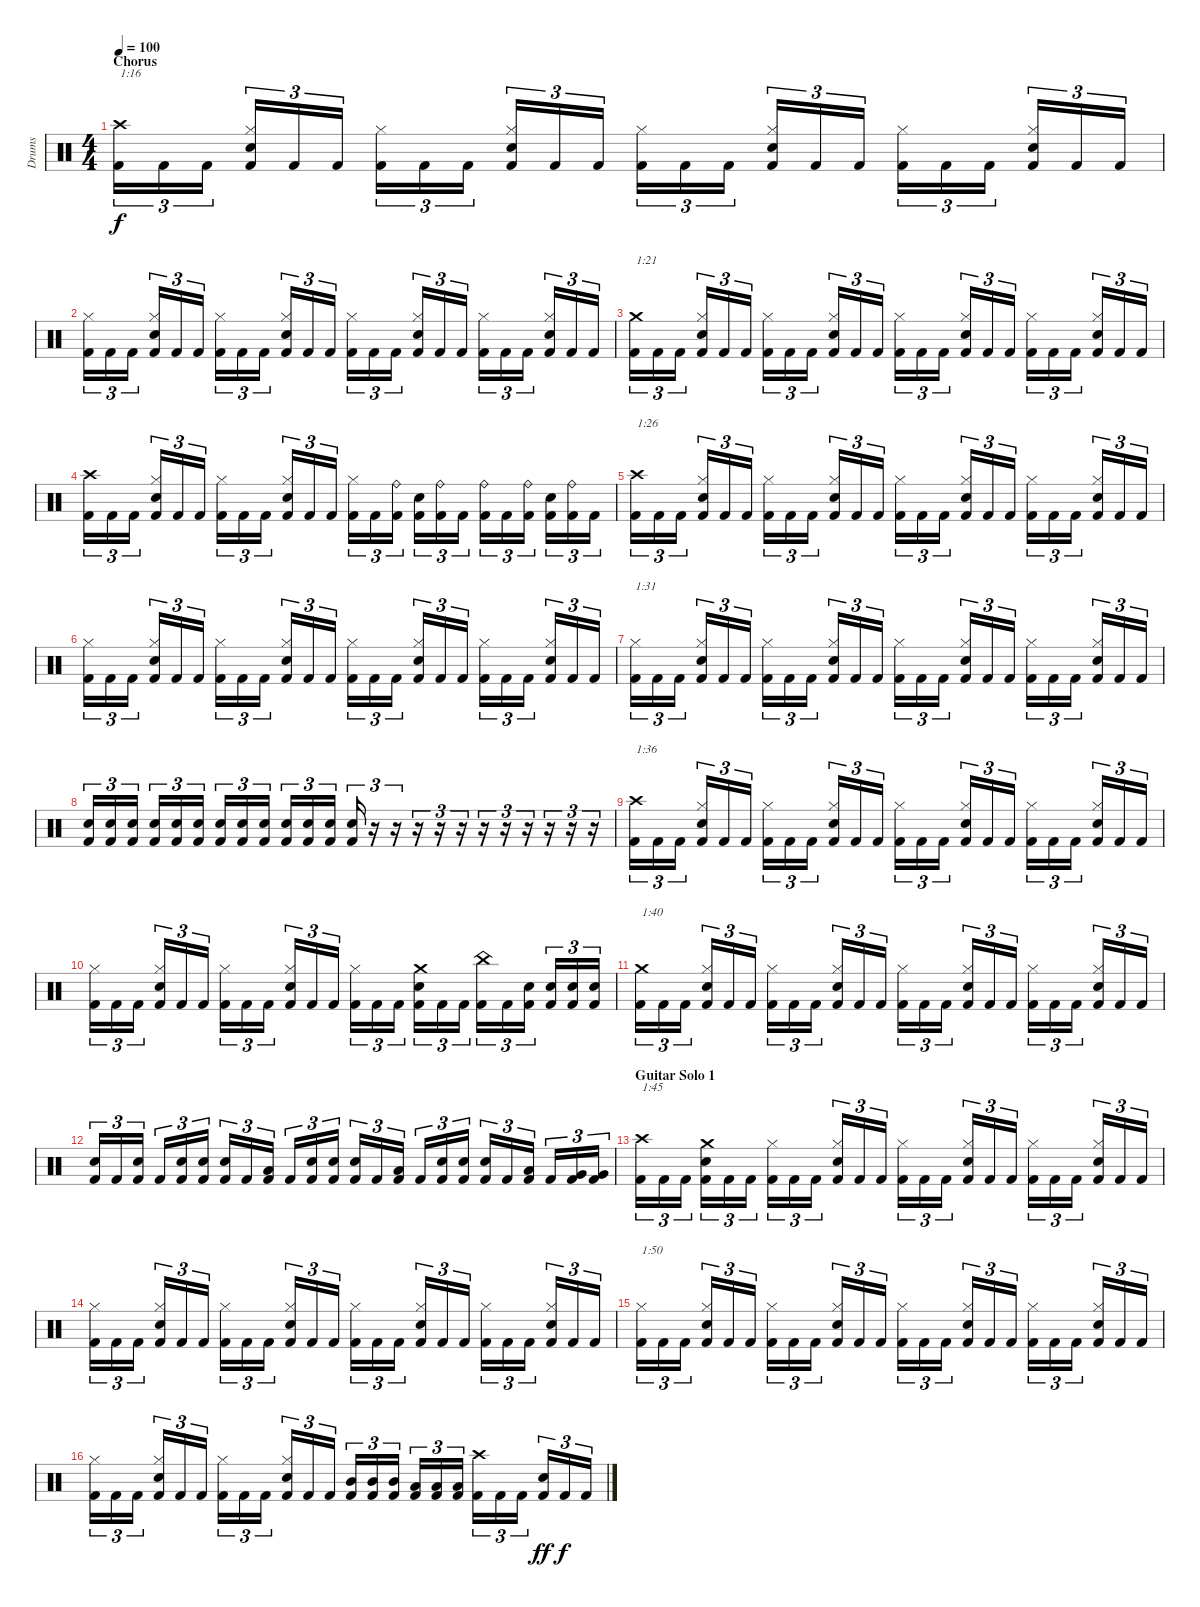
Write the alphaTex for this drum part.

\track ("Drums" "Drums") {instrument percussion}
\staff {score}
\articulation defaults
\ts (4 4)
\section ("" "Chorus")
\tempo 100
\clef neutral
\ks c
("Crash high (hit)" "Kick (hit) 2").16{tu (3 2) txt "1:16" dy f} "Kick (hit) 2".16{tu (3 2)} "Kick (hit) 2".16{tu (3 2)} ("Hi-Hat (closed)" "Snare (hit) 2" "Kick (hit) 2").16{tu (3 2)} "Kick (hit) 2".16{tu (3 2)} "Kick (hit) 2".16{tu (3 2)} ("Hi-Hat (closed)" "Kick (hit) 2").16{tu (3 2)} "Kick (hit) 2".16{tu (3 2)} "Kick (hit) 2".16{tu (3 2)} ("Hi-Hat (closed)" "Snare (hit) 2" "Kick (hit) 2").16{tu (3 2)} "Kick (hit) 2".16{tu (3 2)} "Kick (hit) 2".16{tu (3 2)} ("Hi-Hat (closed)" "Kick (hit) 2").16{tu (3 2)} "Kick (hit) 2".16{tu (3 2)} "Kick (hit) 2".16{tu (3 2)} ("Hi-Hat (closed)" "Snare (hit) 2" "Kick (hit) 2").16{tu (3 2)} "Kick (hit) 2".16{tu (3 2)} "Kick (hit) 2".16{tu (3 2)} ("Hi-Hat (closed)" "Kick (hit) 2").16{tu (3 2)} "Kick (hit) 2".16{tu (3 2)} "Kick (hit) 2".16{tu (3 2)} ("Hi-Hat (closed)" "Snare (hit) 2" "Kick (hit) 2").16{tu (3 2)} "Kick (hit) 2".16{tu (3 2)} "Kick (hit) 2".16{tu (3 2)} |
("Hi-Hat (closed)" "Kick (hit) 2").16{tu (3 2)} "Kick (hit) 2".16{tu (3 2)} "Kick (hit) 2".16{tu (3 2)} ("Hi-Hat (closed)" "Snare (hit) 2" "Kick (hit) 2").16{tu (3 2)} "Kick (hit) 2".16{tu (3 2)} "Kick (hit) 2".16{tu (3 2)} ("Hi-Hat (closed)" "Kick (hit) 2").16{tu (3 2)} "Kick (hit) 2".16{tu (3 2)} "Kick (hit) 2".16{tu (3 2)} ("Hi-Hat (closed)" "Snare (hit) 2" "Kick (hit) 2").16{tu (3 2)} "Kick (hit) 2".16{tu (3 2)} "Kick (hit) 2".16{tu (3 2)} ("Hi-Hat (closed)" "Kick (hit) 2").16{tu (3 2)} "Kick (hit) 2".16{tu (3 2)} "Kick (hit) 2".16{tu (3 2)} ("Hi-Hat (closed)" "Snare (hit) 2" "Kick (hit) 2").16{tu (3 2)} "Kick (hit) 2".16{tu (3 2)} "Kick (hit) 2".16{tu (3 2)} ("Hi-Hat (closed)" "Kick (hit) 2").16{tu (3 2)} "Kick (hit) 2".16{tu (3 2)} "Kick (hit) 2".16{tu (3 2)} ("Hi-Hat (closed)" "Snare (hit) 2" "Kick (hit) 2").16{tu (3 2)} "Kick (hit) 2".16{tu (3 2)} "Kick (hit) 2".16{tu (3 2)} |
("Crash medium (hit)" "Kick (hit) 2").16{tu (3 2) txt "1:21"} "Kick (hit) 2".16{tu (3 2)} "Kick (hit) 2".16{tu (3 2)} ("Hi-Hat (closed)" "Snare (hit) 2" "Kick (hit) 2").16{tu (3 2)} "Kick (hit) 2".16{tu (3 2)} "Kick (hit) 2".16{tu (3 2)} ("Hi-Hat (closed)" "Kick (hit) 2").16{tu (3 2)} "Kick (hit) 2".16{tu (3 2)} "Kick (hit) 2".16{tu (3 2)} ("Hi-Hat (closed)" "Snare (hit) 2" "Kick (hit) 2").16{tu (3 2)} "Kick (hit) 2".16{tu (3 2)} "Kick (hit) 2".16{tu (3 2)} ("Hi-Hat (closed)" "Kick (hit) 2").16{tu (3 2)} "Kick (hit) 2".16{tu (3 2)} "Kick (hit) 2".16{tu (3 2)} ("Hi-Hat (closed)" "Snare (hit) 2" "Kick (hit) 2").16{tu (3 2)} "Kick (hit) 2".16{tu (3 2)} "Kick (hit) 2".16{tu (3 2)} ("Hi-Hat (closed)" "Kick (hit) 2").16{tu (3 2)} "Kick (hit) 2".16{tu (3 2)} "Kick (hit) 2".16{tu (3 2)} ("Hi-Hat (closed)" "Snare (hit) 2" "Kick (hit) 2").16{tu (3 2)} "Kick (hit) 2".16{tu (3 2)} "Kick (hit) 2".16{tu (3 2)} |
("Crash high (hit)" "Kick (hit) 2").16{tu (3 2)} "Kick (hit) 2".16{tu (3 2)} "Kick (hit) 2".16{tu (3 2)} ("Hi-Hat (closed)" "Snare (hit) 2" "Kick (hit) 2").16{tu (3 2)} "Kick (hit) 2".16{tu (3 2)} "Kick (hit) 2".16{tu (3 2)} ("Hi-Hat (closed)" "Kick (hit) 2").16{tu (3 2)} "Kick (hit) 2".16{tu (3 2)} "Kick (hit) 2".16{tu (3 2)} ("Hi-Hat (closed)" "Snare (hit) 2" "Kick (hit) 2").16{tu (3 2)} "Kick (hit) 2".16{tu (3 2)} "Kick (hit) 2".16{tu (3 2)} ("Hi-Hat (closed)" "Kick (hit) 2").16{tu (3 2)} "Kick (hit) 2".16{tu (3 2)} ("Ride (bell)" "Kick (hit) 2").16{tu (3 2)} ("Snare (hit) 2" "Kick (hit) 2").16{tu (3 2)} ("Ride (bell)" "Kick (hit) 2").16{tu (3 2)} "Kick (hit) 2".16{tu (3 2)} ("Ride (bell)" "Kick (hit) 2").16{tu (3 2)} "Kick (hit) 2".16{tu (3 2)} ("Ride (bell)" "Kick (hit) 2").16{tu (3 2)} ("Snare (hit) 2" "Kick (hit) 2").16{tu (3 2)} ("Ride (bell)" "Kick (hit) 2").16{tu (3 2)} "Kick (hit) 2".16{tu (3 2)} |
("Crash high (hit)" "Kick (hit) 2").16{tu (3 2) txt "1:26"} "Kick (hit) 2".16{tu (3 2)} "Kick (hit) 2".16{tu (3 2)} ("Hi-Hat (closed)" "Snare (hit) 2" "Kick (hit) 2").16{tu (3 2)} "Kick (hit) 2".16{tu (3 2)} "Kick (hit) 2".16{tu (3 2)} ("Hi-Hat (closed)" "Kick (hit) 2").16{tu (3 2)} "Kick (hit) 2".16{tu (3 2)} "Kick (hit) 2".16{tu (3 2)} ("Hi-Hat (closed)" "Snare (hit) 2" "Kick (hit) 2").16{tu (3 2)} "Kick (hit) 2".16{tu (3 2)} "Kick (hit) 2".16{tu (3 2)} ("Hi-Hat (closed)" "Kick (hit) 2").16{tu (3 2)} "Kick (hit) 2".16{tu (3 2)} "Kick (hit) 2".16{tu (3 2)} ("Hi-Hat (closed)" "Snare (hit) 2" "Kick (hit) 2").16{tu (3 2)} "Kick (hit) 2".16{tu (3 2)} "Kick (hit) 2".16{tu (3 2)} ("Hi-Hat (closed)" "Kick (hit) 2").16{tu (3 2)} "Kick (hit) 2".16{tu (3 2)} "Kick (hit) 2".16{tu (3 2)} ("Hi-Hat (closed)" "Snare (hit) 2" "Kick (hit) 2").16{tu (3 2)} "Kick (hit) 2".16{tu (3 2)} "Kick (hit) 2".16{tu (3 2)} |
("Hi-Hat (closed)" "Kick (hit) 2").16{tu (3 2)} "Kick (hit) 2".16{tu (3 2)} "Kick (hit) 2".16{tu (3 2)} ("Hi-Hat (closed)" "Snare (hit) 2" "Kick (hit) 2").16{tu (3 2)} "Kick (hit) 2".16{tu (3 2)} "Kick (hit) 2".16{tu (3 2)} ("Hi-Hat (closed)" "Kick (hit) 2").16{tu (3 2)} "Kick (hit) 2".16{tu (3 2)} "Kick (hit) 2".16{tu (3 2)} ("Hi-Hat (closed)" "Snare (hit) 2" "Kick (hit) 2").16{tu (3 2)} "Kick (hit) 2".16{tu (3 2)} "Kick (hit) 2".16{tu (3 2)} ("Hi-Hat (closed)" "Kick (hit) 2").16{tu (3 2)} "Kick (hit) 2".16{tu (3 2)} "Kick (hit) 2".16{tu (3 2)} ("Hi-Hat (closed)" "Snare (hit) 2" "Kick (hit) 2").16{tu (3 2)} "Kick (hit) 2".16{tu (3 2)} "Kick (hit) 2".16{tu (3 2)} ("Hi-Hat (closed)" "Kick (hit) 2").16{tu (3 2)} "Kick (hit) 2".16{tu (3 2)} "Kick (hit) 2".16{tu (3 2)} ("Hi-Hat (closed)" "Snare (hit) 2" "Kick (hit) 2").16{tu (3 2)} "Kick (hit) 2".16{tu (3 2)} "Kick (hit) 2".16{tu (3 2)} |
("Hi-Hat (closed)" "Kick (hit) 2").16{tu (3 2) txt "1:31"} "Kick (hit) 2".16{tu (3 2)} "Kick (hit) 2".16{tu (3 2)} ("Hi-Hat (closed)" "Snare (hit) 2" "Kick (hit) 2").16{tu (3 2)} "Kick (hit) 2".16{tu (3 2)} "Kick (hit) 2".16{tu (3 2)} ("Hi-Hat (closed)" "Kick (hit) 2").16{tu (3 2)} "Kick (hit) 2".16{tu (3 2)} "Kick (hit) 2".16{tu (3 2)} ("Hi-Hat (closed)" "Snare (hit) 2" "Kick (hit) 2").16{tu (3 2)} "Kick (hit) 2".16{tu (3 2)} "Kick (hit) 2".16{tu (3 2)} ("Hi-Hat (closed)" "Kick (hit) 2").16{tu (3 2)} "Kick (hit) 2".16{tu (3 2)} "Kick (hit) 2".16{tu (3 2)} ("Hi-Hat (closed)" "Snare (hit) 2" "Kick (hit) 2").16{tu (3 2)} "Kick (hit) 2".16{tu (3 2)} "Kick (hit) 2".16{tu (3 2)} ("Hi-Hat (closed)" "Kick (hit) 2").16{tu (3 2)} "Kick (hit) 2".16{tu (3 2)} "Kick (hit) 2".16{tu (3 2)} ("Hi-Hat (closed)" "Snare (hit) 2" "Kick (hit) 2").16{tu (3 2)} "Kick (hit) 2".16{tu (3 2)} "Kick (hit) 2".16{tu (3 2)} |
("Snare (hit) 2" "Kick (hit) 2").16{tu (3 2)} ("Snare (hit) 2" "Kick (hit) 2").16{tu (3 2)} ("Snare (hit) 2" "Kick (hit) 2").16{tu (3 2)} ("Snare (hit) 2" "Kick (hit) 2").16{tu (3 2)} ("Snare (hit) 2" "Kick (hit) 2").16{tu (3 2)} ("Snare (hit) 2" "Kick (hit) 2").16{tu (3 2)} ("Snare (hit) 2" "Kick (hit) 2").16{tu (3 2)} ("Snare (hit) 2" "Kick (hit) 2").16{tu (3 2)} ("Snare (hit) 2" "Kick (hit) 2").16{tu (3 2)} ("Snare (hit) 2" "Kick (hit) 2").16{tu (3 2)} ("Snare (hit) 2" "Kick (hit) 2").16{tu (3 2)} ("Snare (hit) 2" "Kick (hit) 2").16{tu (3 2)} ("Snare (hit) 2" "Kick (hit) 2").16{tu (3 2)} r.16{tu (3 2)} r.16{tu (3 2)} r.16{tu (3 2)} r.16{tu (3 2)} r.16{tu (3 2)} r.16{tu (3 2)} r.16{tu (3 2)} r.16{tu (3 2)} r.16{tu (3 2)} r.16{tu (3 2)} r.16{tu (3 2)} |
("Crash high (hit)" "Kick (hit) 2").16{tu (3 2) txt "1:36"} "Kick (hit) 2".16{tu (3 2)} "Kick (hit) 2".16{tu (3 2)} ("Hi-Hat (closed)" "Snare (hit) 2" "Kick (hit) 2").16{tu (3 2)} "Kick (hit) 2".16{tu (3 2)} "Kick (hit) 2".16{tu (3 2)} ("Hi-Hat (closed)" "Kick (hit) 2").16{tu (3 2)} "Kick (hit) 2".16{tu (3 2)} "Kick (hit) 2".16{tu (3 2)} ("Hi-Hat (closed)" "Snare (hit) 2" "Kick (hit) 2").16{tu (3 2)} "Kick (hit) 2".16{tu (3 2)} "Kick (hit) 2".16{tu (3 2)} ("Hi-Hat (closed)" "Kick (hit) 2").16{tu (3 2)} "Kick (hit) 2".16{tu (3 2)} "Kick (hit) 2".16{tu (3 2)} ("Hi-Hat (closed)" "Snare (hit) 2" "Kick (hit) 2").16{tu (3 2)} "Kick (hit) 2".16{tu (3 2)} "Kick (hit) 2".16{tu (3 2)} ("Hi-Hat (closed)" "Kick (hit) 2").16{tu (3 2)} "Kick (hit) 2".16{tu (3 2)} "Kick (hit) 2".16{tu (3 2)} ("Hi-Hat (closed)" "Snare (hit) 2" "Kick (hit) 2").16{tu (3 2)} "Kick (hit) 2".16{tu (3 2)} "Kick (hit) 2".16{tu (3 2)} |
("Hi-Hat (closed)" "Kick (hit) 2").16{tu (3 2)} "Kick (hit) 2".16{tu (3 2)} "Kick (hit) 2".16{tu (3 2)} ("Hi-Hat (closed)" "Snare (hit) 2" "Kick (hit) 2").16{tu (3 2)} "Kick (hit) 2".16{tu (3 2)} "Kick (hit) 2".16{tu (3 2)} ("Hi-Hat (closed)" "Kick (hit) 2").16{tu (3 2)} "Kick (hit) 2".16{tu (3 2)} "Kick (hit) 2".16{tu (3 2)} ("Hi-Hat (closed)" "Snare (hit) 2" "Kick (hit) 2").16{tu (3 2)} "Kick (hit) 2".16{tu (3 2)} "Kick (hit) 2".16{tu (3 2)} ("Hi-Hat (closed)" "Kick (hit) 2").16{tu (3 2)} "Kick (hit) 2".16{tu (3 2)} "Kick (hit) 2".16{tu (3 2)} ("Crash medium (hit)" "Snare (hit) 2" "Kick (hit) 2").16{tu (3 2)} "Kick (hit) 2".16{tu (3 2)} "Kick (hit) 2".16{tu (3 2)} ("China (hit)" "Kick (hit) 2").16{tu (3 2)} "Kick (hit) 2".16{tu (3 2)} ("Snare (hit) 2" "Kick (hit) 2").16{tu (3 2)} ("Snare (hit) 2" "Kick (hit) 2").16{tu (3 2)} ("Snare (hit) 2" "Kick (hit) 2").16{tu (3 2)} ("Snare (hit) 2" "Kick (hit) 2").16{tu (3 2)} |
("Crash medium (hit)" "Kick (hit) 2").16{tu (3 2) txt "1:40"} "Kick (hit) 2".16{tu (3 2)} "Kick (hit) 2".16{tu (3 2)} ("Hi-Hat (closed)" "Snare (hit) 2" "Kick (hit) 2").16{tu (3 2)} "Kick (hit) 2".16{tu (3 2)} "Kick (hit) 2".16{tu (3 2)} ("Hi-Hat (closed)" "Kick (hit) 2").16{tu (3 2)} "Kick (hit) 2".16{tu (3 2)} "Kick (hit) 2".16{tu (3 2)} ("Hi-Hat (closed)" "Snare (hit) 2" "Kick (hit) 2").16{tu (3 2)} "Kick (hit) 2".16{tu (3 2)} "Kick (hit) 2".16{tu (3 2)} ("Hi-Hat (closed)" "Kick (hit) 2").16{tu (3 2)} "Kick (hit) 2".16{tu (3 2)} "Kick (hit) 2".16{tu (3 2)} ("Hi-Hat (closed)" "Snare (hit) 2" "Kick (hit) 2").16{tu (3 2)} "Kick (hit) 2".16{tu (3 2)} "Kick (hit) 2".16{tu (3 2)} ("Hi-Hat (closed)" "Kick (hit) 2").16{tu (3 2)} "Kick (hit) 2".16{tu (3 2)} "Kick (hit) 2".16{tu (3 2)} ("Hi-Hat (closed)" "Snare (hit) 2" "Kick (hit) 2").16{tu (3 2)} "Kick (hit) 2".16{tu (3 2)} "Kick (hit) 2".16{tu (3 2)} |
("Snare (hit) 2" "Kick (hit) 2").16{tu (3 2)} "Kick (hit) 2".16{tu (3 2)} ("Snare (hit) 2" "Kick (hit) 2").16{tu (3 2)} "Kick (hit) 2".16{tu (3 2)} ("Snare (hit) 2" "Kick (hit) 2").16{tu (3 2)} ("Snare (hit) 2" "Kick (hit) 2").16{tu (3 2)} ("Snare (hit) 2" "Kick (hit) 2").16{tu (3 2)} "Kick (hit) 2".16{tu (3 2)} ("Low Tom (hit)" "Kick (hit) 2").16{tu (3 2)} "Kick (hit) 2".16{tu (3 2)} ("Snare (hit) 2" "Kick (hit) 2").16{tu (3 2)} ("Snare (hit) 2" "Kick (hit) 2").16{tu (3 2)} ("Snare (hit) 2" "Kick (hit) 2").16{tu (3 2)} "Kick (hit) 2".16{tu (3 2)} ("Low Tom (hit)" "Kick (hit) 2").16{tu (3 2)} "Kick (hit) 2".16{tu (3 2)} ("Snare (hit) 2" "Kick (hit) 2").16{tu (3 2)} ("Snare (hit) 2" "Kick (hit) 2").16{tu (3 2)} ("Snare (hit) 2" "Kick (hit) 2").16{tu (3 2)} "Kick (hit) 2".16{tu (3 2)} ("Low Tom (hit)" "Kick (hit) 2").16{tu (3 2)} "Kick (hit) 2".16{tu (3 2)} ("Very Low Tom (hit)" "Kick (hit) 2").16{tu (3 2)} ("Very Low Tom (hit)" "Kick (hit) 2").16{tu (3 2)} |
\section ("" "Guitar Solo 1")
("Crash high (hit)" "Kick (hit) 2").16{tu (3 2) txt "1:45"} "Kick (hit) 2".16{tu (3 2)} "Kick (hit) 2".16{tu (3 2)} ("Crash medium (hit)" "Snare (hit) 2" "Kick (hit) 2").16{tu (3 2)} "Kick (hit) 2".16{tu (3 2)} "Kick (hit) 2".16{tu (3 2)} ("Hi-Hat (closed)" "Kick (hit) 2").16{tu (3 2)} "Kick (hit) 2".16{tu (3 2)} "Kick (hit) 2".16{tu (3 2)} ("Hi-Hat (closed)" "Snare (hit) 2" "Kick (hit) 2").16{tu (3 2)} "Kick (hit) 2".16{tu (3 2)} "Kick (hit) 2".16{tu (3 2)} ("Hi-Hat (closed)" "Kick (hit) 2").16{tu (3 2)} "Kick (hit) 2".16{tu (3 2)} "Kick (hit) 2".16{tu (3 2)} ("Hi-Hat (closed)" "Snare (hit) 2" "Kick (hit) 2").16{tu (3 2)} "Kick (hit) 2".16{tu (3 2)} "Kick (hit) 2".16{tu (3 2)} ("Hi-Hat (closed)" "Kick (hit) 2").16{tu (3 2)} "Kick (hit) 2".16{tu (3 2)} "Kick (hit) 2".16{tu (3 2)} ("Hi-Hat (closed)" "Snare (hit) 2" "Kick (hit) 2").16{tu (3 2)} "Kick (hit) 2".16{tu (3 2)} "Kick (hit) 2".16{tu (3 2)} |
("Hi-Hat (closed)" "Kick (hit) 2").16{tu (3 2)} "Kick (hit) 2".16{tu (3 2)} "Kick (hit) 2".16{tu (3 2)} ("Hi-Hat (closed)" "Snare (hit) 2" "Kick (hit) 2").16{tu (3 2)} "Kick (hit) 2".16{tu (3 2)} "Kick (hit) 2".16{tu (3 2)} ("Hi-Hat (closed)" "Kick (hit) 2").16{tu (3 2)} "Kick (hit) 2".16{tu (3 2)} "Kick (hit) 2".16{tu (3 2)} ("Hi-Hat (closed)" "Snare (hit) 2" "Kick (hit) 2").16{tu (3 2)} "Kick (hit) 2".16{tu (3 2)} "Kick (hit) 2".16{tu (3 2)} ("Hi-Hat (closed)" "Kick (hit) 2").16{tu (3 2)} "Kick (hit) 2".16{tu (3 2)} "Kick (hit) 2".16{tu (3 2)} ("Hi-Hat (closed)" "Snare (hit) 2" "Kick (hit) 2").16{tu (3 2)} "Kick (hit) 2".16{tu (3 2)} "Kick (hit) 2".16{tu (3 2)} ("Hi-Hat (closed)" "Kick (hit) 2").16{tu (3 2)} "Kick (hit) 2".16{tu (3 2)} "Kick (hit) 2".16{tu (3 2)} ("Hi-Hat (closed)" "Snare (hit) 2" "Kick (hit) 2").16{tu (3 2)} "Kick (hit) 2".16{tu (3 2)} "Kick (hit) 2".16{tu (3 2)} |
("Hi-Hat (closed)" "Kick (hit) 2").16{tu (3 2) txt "1:50"} "Kick (hit) 2".16{tu (3 2)} "Kick (hit) 2".16{tu (3 2)} ("Hi-Hat (closed)" "Snare (hit) 2" "Kick (hit) 2").16{tu (3 2)} "Kick (hit) 2".16{tu (3 2)} "Kick (hit) 2".16{tu (3 2)} ("Hi-Hat (closed)" "Kick (hit) 2").16{tu (3 2)} "Kick (hit) 2".16{tu (3 2)} "Kick (hit) 2".16{tu (3 2)} ("Hi-Hat (closed)" "Snare (hit) 2" "Kick (hit) 2").16{tu (3 2)} "Kick (hit) 2".16{tu (3 2)} "Kick (hit) 2".16{tu (3 2)} ("Hi-Hat (closed)" "Kick (hit) 2").16{tu (3 2)} "Kick (hit) 2".16{tu (3 2)} "Kick (hit) 2".16{tu (3 2)} ("Hi-Hat (closed)" "Snare (hit) 2" "Kick (hit) 2").16{tu (3 2)} "Kick (hit) 2".16{tu (3 2)} "Kick (hit) 2".16{tu (3 2)} ("Hi-Hat (closed)" "Kick (hit) 2").16{tu (3 2)} "Kick (hit) 2".16{tu (3 2)} "Kick (hit) 2".16{tu (3 2)} ("Hi-Hat (closed)" "Snare (hit) 2" "Kick (hit) 2").16{tu (3 2)} "Kick (hit) 2".16{tu (3 2)} "Kick (hit) 2".16{tu (3 2)} |
("Hi-Hat (closed)" "Kick (hit) 2").16{tu (3 2)} "Kick (hit) 2".16{tu (3 2)} "Kick (hit) 2".16{tu (3 2)} ("Hi-Hat (closed)" "Snare (hit) 2" "Kick (hit) 2").16{tu (3 2)} "Kick (hit) 2".16{tu (3 2)} "Kick (hit) 2".16{tu (3 2)} ("Hi-Hat (closed)" "Kick (hit) 2").16{tu (3 2)} "Kick (hit) 2".16{tu (3 2)} "Kick (hit) 2".16{tu (3 2)} ("Hi-Hat (closed)" "Snare (hit) 2" "Kick (hit) 2").16{tu (3 2)} "Kick (hit) 2".16{tu (3 2)} "Kick (hit) 2".16{tu (3 2)} ("Mid Tom (hit)" "Kick (hit) 2").16{tu (3 2)} ("Mid Tom (hit)" "Kick (hit) 2").16{tu (3 2)} ("Mid Tom (hit)" "Kick (hit) 2").16{tu (3 2)} ("Low Tom (hit)" "Kick (hit) 2").16{tu (3 2)} ("Low Tom (hit)" "Kick (hit) 2").16{tu (3 2)} ("Low Tom (hit)" "Kick (hit) 2").16{tu (3 2)} ("Crash high (hit)" "Kick (hit) 2").16{tu (3 2)} "Kick (hit) 2".16{tu (3 2)} "Kick (hit) 2".16{tu (3 2)} ("Snare (hit) 2" "Kick (hit) 2").16{tu (3 2) dy ff} "Kick (hit) 2".16{tu (3 2) dy f} "Kick (hit) 2".16{tu (3 2)}
